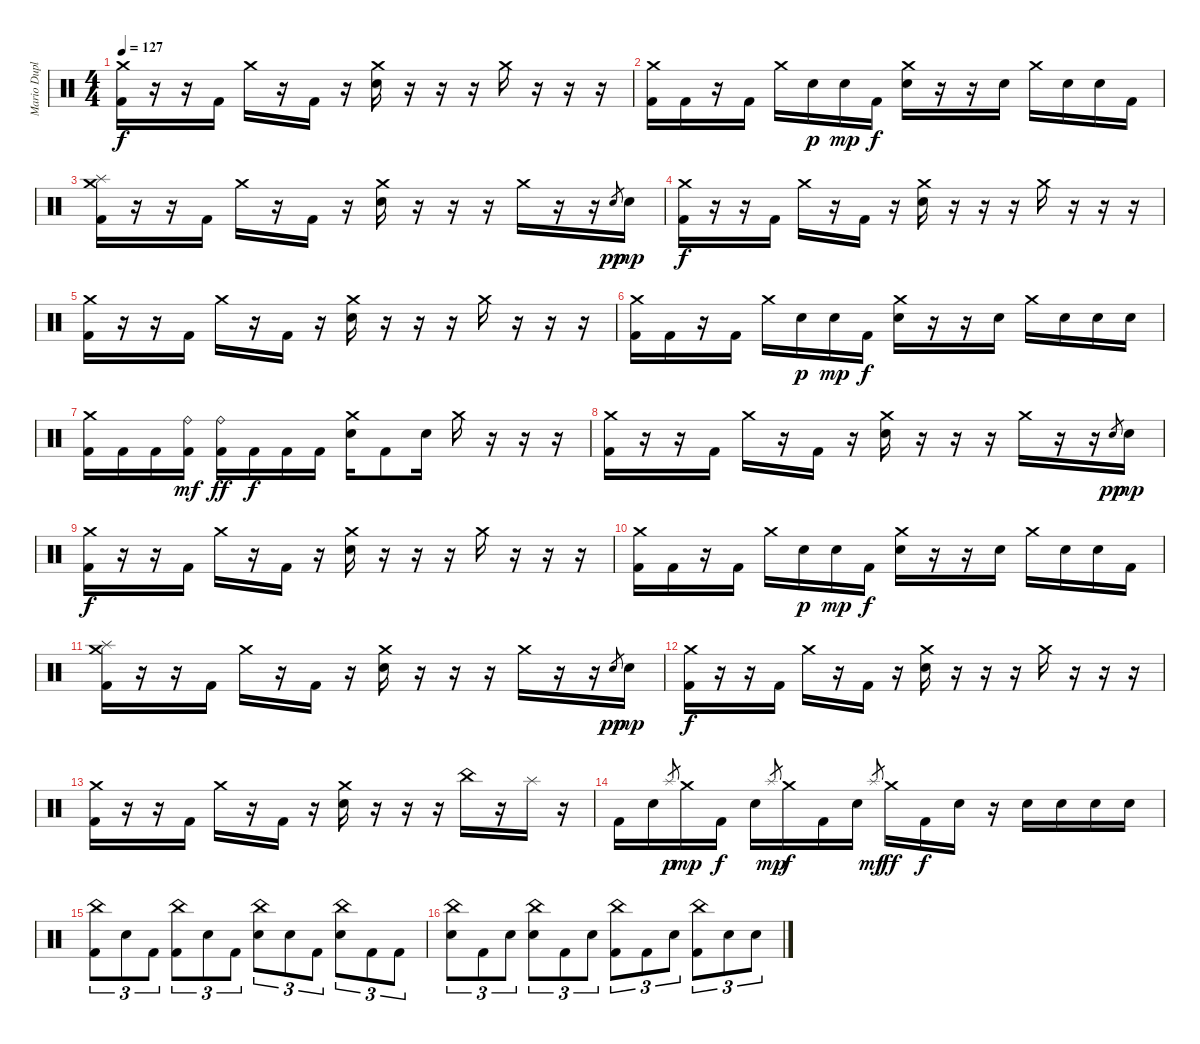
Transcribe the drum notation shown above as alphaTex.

\track ("Mario Duplantier" "Mario Dupl") {instrument percussion}
\staff {score}
\articulation defaults
\ts (4 4)
\tempo 127
\clef neutral
\ks c
("Crash medium (hit)" "Kick (hit) 2").16{dy f} r.16 r.16 "Kick (hit) 2".16 "Crash medium (hit)".16 r.16 "Kick (hit) 2".16 r.16 ("Crash medium (hit)" "Electric Snare (hit)").16 r.16 r.16 r.16 "Crash medium (hit)".16 r.16 r.16 r.16 |
("Crash medium (hit)" "Kick (hit) 2").16 "Kick (hit) 2".16 r.16 "Kick (hit) 2".16 "Crash medium (hit)".16 "Electric Snare (hit)".16{dy p} "Electric Snare (hit)".16{dy mp} "Kick (hit) 2".16{dy f} ("Crash medium (hit)" "Electric Snare (hit)").16 r.16 r.16 "Electric Snare (hit)".16 "Crash medium (hit)".16 "Electric Snare (hit)".16 "Electric Snare (hit)".16 "Kick (hit) 2".16 |
("Crash medium (hit)" "Splash (hit)" "Kick (hit) 2").16 r.16 r.16 "Kick (hit) 2".16 "Crash medium (hit)".16 r.16 "Kick (hit) 2".16 r.16 ("Crash medium (hit)" "Electric Snare (hit)").16 r.16 r.16 r.16 "Crash medium (hit)".16 r.16 r.16 "Electric Snare (hit)".8{gr dy pp} "Electric Snare (hit)".16{dy mp} |
("Crash medium (hit)" "Kick (hit) 2").16{dy f} r.16 r.16 "Kick (hit) 2".16 "Crash medium (hit)".16 r.16 "Kick (hit) 2".16 r.16 ("Crash medium (hit)" "Electric Snare (hit)").16 r.16 r.16 r.16 "Crash medium (hit)".16 r.16 r.16 r.16 |
("Crash medium (hit)" "Kick (hit) 2").16 r.16 r.16 "Kick (hit) 2".16 "Crash medium (hit)".16 r.16 "Kick (hit) 2".16 r.16 ("Crash medium (hit)" "Electric Snare (hit)").16 r.16 r.16 r.16 "Crash medium (hit)".16 r.16 r.16 r.16 |
("Crash medium (hit)" "Kick (hit) 2").16 "Kick (hit) 2".16 r.16 "Kick (hit) 2".16 "Crash medium (hit)".16 "Electric Snare (hit)".16{dy p} "Electric Snare (hit)".16{dy mp} "Kick (hit) 2".16{dy f} ("Crash medium (hit)" "Electric Snare (hit)").16 r.16 r.16 "Electric Snare (hit)".16 "Crash medium (hit)".16 "Electric Snare (hit)".16 "Electric Snare (hit)".16 "Electric Snare (hit)".16 |
("Crash medium (hit)" "Kick (hit) 2").16 "Kick (hit) 2".16 "Kick (hit) 2".16 ("Ride (bell)" "Kick (hit) 2").16{dy mf} ("Ride (bell)" "Kick (hit) 2").16{dy ff} "Kick (hit) 2".16{dy f} "Kick (hit) 2".16 "Kick (hit) 2".16 ("Crash medium (hit)" "Electric Snare (hit)").16 "Kick (hit) 2".8 "Electric Snare (hit)".16 "Crash medium (hit)".16 r.16 r.16 r.16 |
("Crash medium (hit)" "Kick (hit) 2").16 r.16 r.16 "Kick (hit) 2".16 "Crash medium (hit)".16 r.16 "Kick (hit) 2".16 r.16 ("Crash medium (hit)" "Electric Snare (hit)").16 r.16 r.16 r.16 "Crash medium (hit)".16 r.16 r.16 "Electric Snare (hit)".8{gr dy pp} "Electric Snare (hit)".16{dy mp} |
("Crash medium (hit)" "Kick (hit) 2").16{dy f} r.16 r.16 "Kick (hit) 2".16 "Crash medium (hit)".16 r.16 "Kick (hit) 2".16 r.16 ("Crash medium (hit)" "Electric Snare (hit)").16 r.16 r.16 r.16 "Crash medium (hit)".16 r.16 r.16 r.16 |
("Crash medium (hit)" "Kick (hit) 2").16 "Kick (hit) 2".16 r.16 "Kick (hit) 2".16 "Crash medium (hit)".16 "Electric Snare (hit)".16{dy p} "Electric Snare (hit)".16{dy mp} "Kick (hit) 2".16{dy f} ("Crash medium (hit)" "Electric Snare (hit)").16 r.16 r.16 "Electric Snare (hit)".16 "Crash medium (hit)".16 "Electric Snare (hit)".16 "Electric Snare (hit)".16 "Kick (hit) 2".16 |
("Crash medium (hit)" "Splash (hit)" "Kick (hit) 2").16 r.16 r.16 "Kick (hit) 2".16 "Crash medium (hit)".16 r.16 "Kick (hit) 2".16 r.16 ("Crash medium (hit)" "Electric Snare (hit)").16 r.16 r.16 r.16 "Crash medium (hit)".16 r.16 r.16 "Electric Snare (hit)".8{gr dy pp} "Electric Snare (hit)".16{dy mp} |
("Crash medium (hit)" "Kick (hit) 2").16{dy f} r.16 r.16 "Kick (hit) 2".16 "Crash medium (hit)".16 r.16 "Kick (hit) 2".16 r.16 ("Crash medium (hit)" "Electric Snare (hit)").16 r.16 r.16 r.16 "Crash medium (hit)".16 r.16 r.16 r.16 |
("Crash medium (hit)" "Kick (hit) 2").16 r.16 r.16 "Kick (hit) 2".16 "Crash medium (hit)".16 r.16 "Kick (hit) 2".16 r.16 ("Crash medium (hit)" "Electric Snare (hit)").16 r.16 r.16 r.16 "China (hit)".16 r.16 "Splash (hit)".16 r.16 |
"Kick (hit) 2".16 "Electric Snare (hit)".16 "Splash (hit)".8{gr dy p} "Crash medium (hit)".16{dy mp} "Kick (hit) 2".16{dy f} "Electric Snare (hit)".16 "Splash (hit)".8{gr dy mp} "Crash medium (hit)".16{dy f} "Kick (hit) 2".16 "Electric Snare (hit)".16 "Splash (hit)".8{gr dy mf} "Crash medium (hit)".16{dy ff} "Kick (hit) 2".16{dy f} "Electric Snare (hit)".16 r.16 "Electric Snare (hit)".16 "Electric Snare (hit)".16 "Electric Snare (hit)".16 "Electric Snare (hit)".16 |
("China (hit)" "Kick (hit) 2").8{tu (3 2)} "Electric Snare (hit)".8{tu (3 2)} "Kick (hit) 2".8{tu (3 2)} ("China (hit)" "Kick (hit) 2").8{tu (3 2)} "Electric Snare (hit)".8{tu (3 2)} "Kick (hit) 2".8{tu (3 2)} ("China (hit)" "Electric Snare (hit)").8{tu (3 2)} "Electric Snare (hit)".8{tu (3 2)} "Kick (hit) 2".8{tu (3 2)} ("China (hit)" "Electric Snare (hit)").8{tu (3 2)} "Kick (hit) 2".8{tu (3 2)} "Kick (hit) 2".8{tu (3 2)} |
("China (hit)" "Electric Snare (hit)").8{tu (3 2)} "Kick (hit) 2".8{tu (3 2)} "Electric Snare (hit)".8{tu (3 2)} ("China (hit)" "Electric Snare (hit)").8{tu (3 2)} "Kick (hit) 2".8{tu (3 2)} "Electric Snare (hit)".8{tu (3 2)} ("China (hit)" "Kick (hit) 2").8{tu (3 2)} "Kick (hit) 2".8{tu (3 2)} "Electric Snare (hit)".8{tu (3 2)} ("China (hit)" "Kick (hit) 2").8{tu (3 2)} "Electric Snare (hit)".8{tu (3 2)} "Electric Snare (hit)".8{tu (3 2)}
